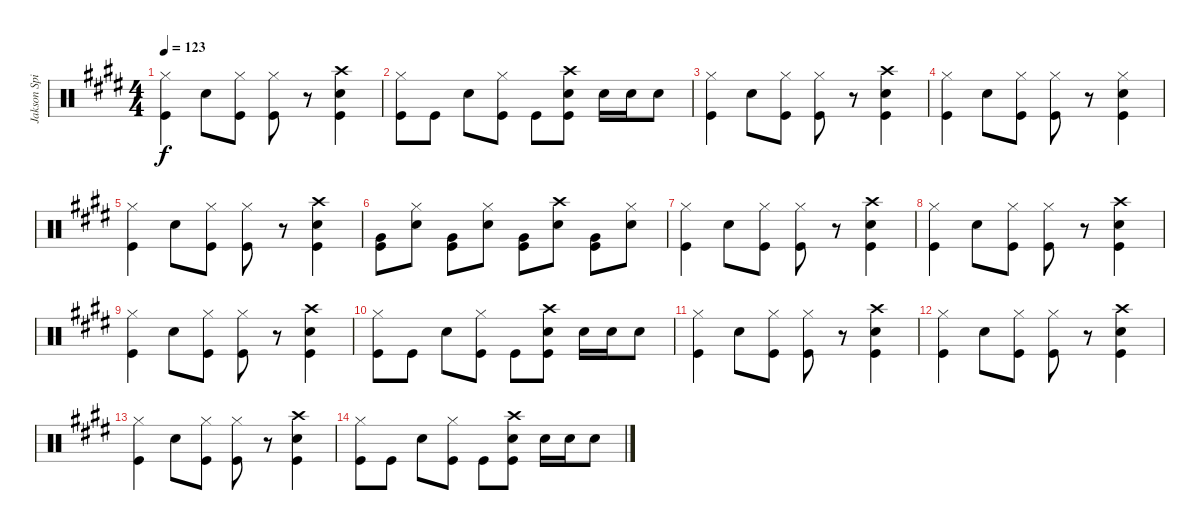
\track ("Jakson Spires Drums" "Jakson Spi") {instrument percussion}
\staff {score}
\articulation defaults
\ts (4 4)
\tempo 123
\clef neutral
\ks e
("Hi-Hat (closed)" "Kick (hit)").4{dy f} "Snare (hit) 2".8 ("Hi-Hat (closed)" "Kick (hit)").8 ("Hi-Hat (closed)" "Kick (hit)").8 r.8 ("Crash high (hit)" "Snare (hit) 2" "Kick (hit)").4 |
("Hi-Hat (closed)" "Kick (hit)").8 "Kick (hit)".8 "Snare (hit) 2".8 ("Hi-Hat (closed)" "Kick (hit)").8 "Kick (hit)".8 ("Crash high (hit)" "Snare (hit) 2" "Kick (hit)").8 "Snare (hit) 2".16 "Snare (hit) 2".16 "Snare (hit) 2".8 |
("Hi-Hat (closed)" "Kick (hit)").4 "Snare (hit) 2".8 ("Hi-Hat (closed)" "Kick (hit)").8 ("Hi-Hat (closed)" "Kick (hit)").8 r.8 ("Crash high (hit)" "Snare (hit) 2" "Kick (hit)").4 |
("Hi-Hat (closed)" "Kick (hit)").4 "Snare (hit) 2".8 ("Hi-Hat (closed)" "Kick (hit)").8 ("Hi-Hat (closed)" "Kick (hit)").8 r.8 ("Hi-Hat (closed)" "Snare (hit) 2" "Kick (hit)").4 |
("Hi-Hat (closed)" "Kick (hit)").4 "Snare (hit) 2".8 ("Hi-Hat (closed)" "Kick (hit)").8 ("Hi-Hat (closed)" "Kick (hit)").8 r.8 ("Crash high (hit)" "Snare (hit) 2" "Kick (hit)").4 |
("Very Low Tom (hit)" "Kick (hit)").8 ("Hi-Hat (closed)" "Snare (hit) 2").8 ("Very Low Tom (hit)" "Kick (hit)").8 ("Hi-Hat (closed)" "Snare (hit) 2").8 ("Very Low Tom (hit)" "Kick (hit)").8 ("Crash high (hit)" "Snare (hit) 2").8 ("Very Low Tom (hit)" "Kick (hit)").8 ("Hi-Hat (closed)" "Snare (hit) 2").8 |
("Hi-Hat (closed)" "Kick (hit)").4 "Snare (hit) 2".8 ("Hi-Hat (closed)" "Kick (hit)").8 ("Hi-Hat (closed)" "Kick (hit)").8 r.8 ("Crash high (hit)" "Snare (hit) 2" "Kick (hit)").4 |
("Hi-Hat (closed)" "Kick (hit)").4 "Snare (hit) 2".8 ("Hi-Hat (closed)" "Kick (hit)").8 ("Hi-Hat (closed)" "Kick (hit)").8 r.8 ("Crash high (hit)" "Snare (hit) 2" "Kick (hit)").4 |
("Hi-Hat (closed)" "Kick (hit)").4 "Snare (hit) 2".8 ("Hi-Hat (closed)" "Kick (hit)").8 ("Hi-Hat (closed)" "Kick (hit)").8 r.8 ("Crash high (hit)" "Snare (hit) 2" "Kick (hit)").4 |
("Hi-Hat (closed)" "Kick (hit)").8 "Kick (hit)".8 "Snare (hit) 2".8 ("Hi-Hat (closed)" "Kick (hit)").8 "Kick (hit)".8 ("Crash high (hit)" "Snare (hit) 2" "Kick (hit)").8 "Snare (hit) 2".16 "Snare (hit) 2".16 "Snare (hit) 2".8 |
("Hi-Hat (closed)" "Kick (hit)").4 "Snare (hit) 2".8 ("Hi-Hat (closed)" "Kick (hit)").8 ("Hi-Hat (closed)" "Kick (hit)").8 r.8 ("Crash high (hit)" "Snare (hit) 2" "Kick (hit)").4 |
("Hi-Hat (closed)" "Kick (hit)").4 "Snare (hit) 2".8 ("Hi-Hat (closed)" "Kick (hit)").8 ("Hi-Hat (closed)" "Kick (hit)").8 r.8 ("Crash high (hit)" "Snare (hit) 2" "Kick (hit)").4 |
("Hi-Hat (closed)" "Kick (hit)").4 "Snare (hit) 2".8 ("Hi-Hat (closed)" "Kick (hit)").8 ("Hi-Hat (closed)" "Kick (hit)").8 r.8 ("Crash high (hit)" "Snare (hit) 2" "Kick (hit)").4 |
("Hi-Hat (closed)" "Kick (hit)").8 "Kick (hit)".8 "Snare (hit) 2".8 ("Hi-Hat (closed)" "Kick (hit)").8 "Kick (hit)".8 ("Crash high (hit)" "Snare (hit) 2" "Kick (hit)").8 "Snare (hit) 2".16 "Snare (hit) 2".16 "Snare (hit) 2".8
